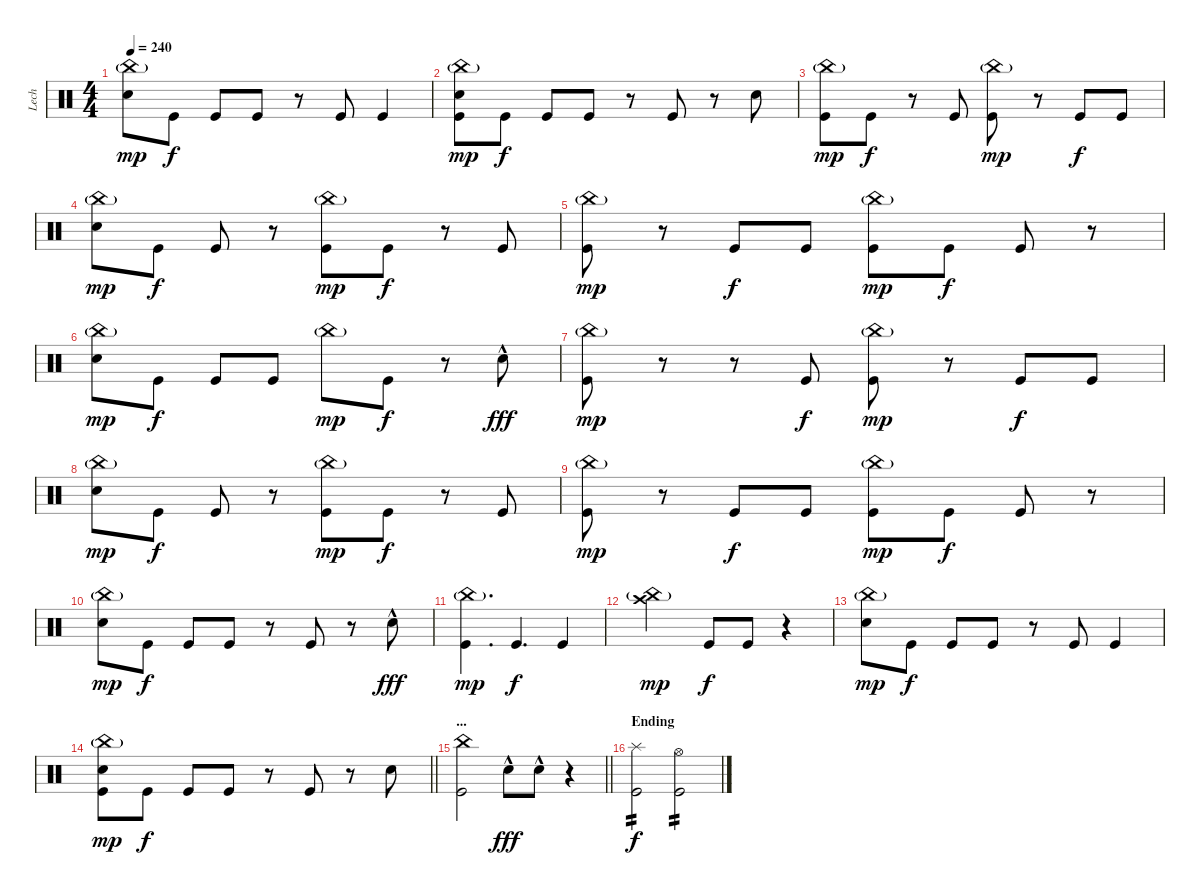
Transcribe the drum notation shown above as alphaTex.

\track ("Lech" "Lech") {instrument percussion}
\staff {score}
\articulation defaults
\ts (4 4)
\tempo 240
\clef neutral
\ks c
("China (hit)"{g} "Snare (hit) 2").8{dy mp} "Kick (hit)".8{dy f} "Kick (hit)".8 "Kick (hit)".8 r.8 "Kick (hit)".8 "Kick (hit)".4 |
("China (hit)"{g} "Snare (hit) 2" "Kick (hit)").8{dy mp} "Kick (hit)".8{dy f} "Kick (hit)".8 "Kick (hit)".8 r.8 "Kick (hit)".8 r.8 "Snare (hit) 2".8 |
("China (hit)"{g} "Kick (hit)").8{dy mp} "Kick (hit)".8{dy f} r.8 "Kick (hit)".8 ("China (hit)"{g} "Kick (hit)").8{dy mp} r.8 "Kick (hit)".8{dy f} "Kick (hit)".8 |
("China (hit)"{g} "Snare (hit) 2").8{dy mp} "Kick (hit)".8{dy f} "Kick (hit)".8 r.8 ("China (hit)"{g} "Kick (hit)").8{dy mp} "Kick (hit)".8{dy f} r.8 "Kick (hit)".8 |
("China (hit)"{g} "Kick (hit)").8{dy mp} r.8 "Kick (hit)".8{dy f} "Kick (hit)".8 ("China (hit)"{g} "Kick (hit)").8{dy mp} "Kick (hit)".8{dy f} "Kick (hit)".8 r.8 |
("China (hit)"{g} "Snare (hit) 2").8{dy mp} "Kick (hit)".8{dy f} "Kick (hit)".8 "Kick (hit)".8 "China (hit)"{g}.8{dy mp} "Kick (hit)".8{dy f} r.8 "Snare (hit) 2"{hac}.8{dy fff} |
("China (hit)"{g} "Kick (hit)").8{dy mp} r.8 r.8 "Kick (hit)".8{dy f} ("China (hit)"{g} "Kick (hit)").8{dy mp} r.8 "Kick (hit)".8{dy f} "Kick (hit)".8 |
("China (hit)"{g} "Snare (hit) 2").8{dy mp} "Kick (hit)".8{dy f} "Kick (hit)".8 r.8 ("China (hit)"{g} "Kick (hit)").8{dy mp} "Kick (hit)".8{dy f} r.8 "Kick (hit)".8 |
("China (hit)"{g} "Kick (hit)").8{dy mp} r.8 "Kick (hit)".8{dy f} "Kick (hit)".8 ("China (hit)"{g} "Kick (hit)").8{dy mp} "Kick (hit)".8{dy f} "Kick (hit)".8 r.8 |
("China (hit)"{g} "Snare (hit) 2").8{dy mp} "Kick (hit)".8{dy f} "Kick (hit)".8 "Kick (hit)".8 r.8 "Kick (hit)".8 r.8 "Snare (hit) 2"{hac}.8{dy fff} |
("China (hit)"{g} "Kick (hit)").4{d dy mp} "Kick (hit)".4{d dy f} "Kick (hit)".4 |
("Crash high (hit)" "China (hit)"{g}).2{dy mp} "Kick (hit)".8{dy f} "Kick (hit)".8 r.4 |
("China (hit)"{g} "Snare (hit) 2").8{dy mp} "Kick (hit)".8{dy f} "Kick (hit)".8 "Kick (hit)".8 r.8 "Kick (hit)".8 "Kick (hit)".4 |
\barLineRight lightlight
("China (hit)"{g} "Snare (hit) 2" "Kick (hit)").8{dy mp} "Kick (hit)".8{dy f} "Kick (hit)".8 "Kick (hit)".8 r.8 "Kick (hit)".8 r.8 "Snare (hit) 2".8 |
\section ("" "...")
\barLineRight lightlight
("China (hit)" "Kick (hit)").2 "Snare (hit) 2"{hac}.8{dy fff} "Snare (hit) 2"{hac}.8 r.4 |
\section ("" "Ending")
("Splash (hit)" "Kick (hit)").2{tp 2 dy f} ("Hi-Hat (open)" "Kick (hit)").2{tp 2}
